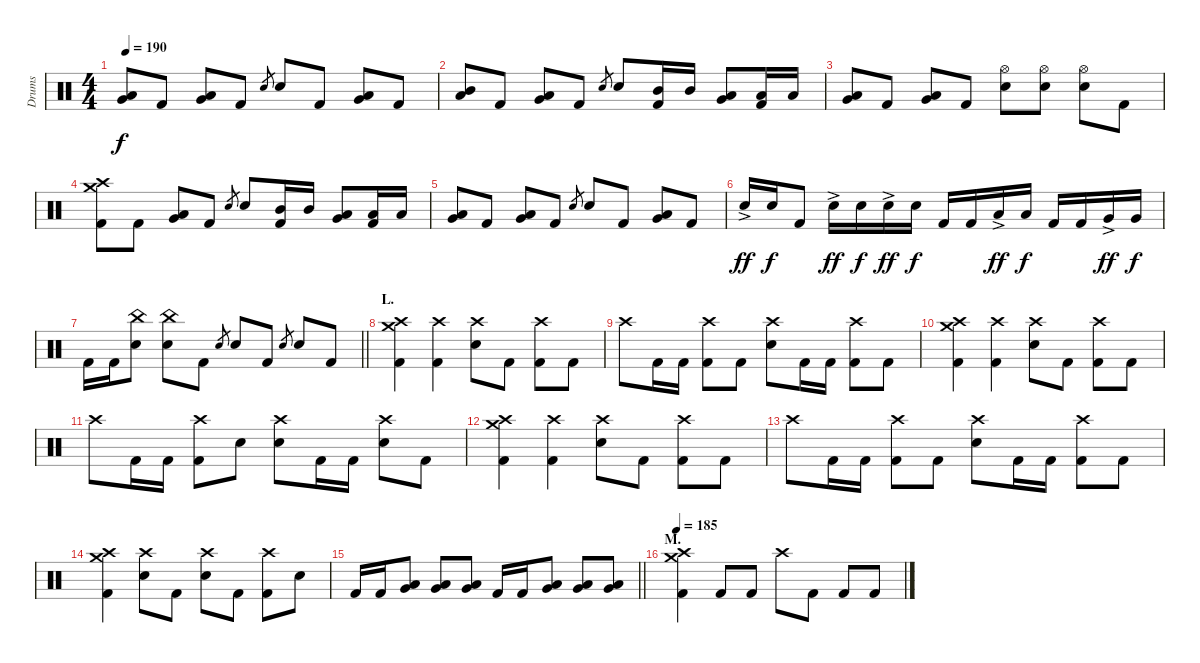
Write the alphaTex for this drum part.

\track ("Drums" "Drums") {instrument percussion}
\staff {score}
\articulation defaults
\ts (4 4)
\tempo 190
\clef neutral
\ks c
("Very Low Tom (hit)" "Low Floor Tom (hit)").8{bu 120 dy f} "Kick (hit) 2".8 ("Low Tom (hit)" "Very Low Tom (hit)").8{bu 120} "Kick (hit) 2".8 "Electric Snare (hit)".8{gr} "Electric Snare (hit)".8 "Kick (hit) 2".8 ("Low Tom (hit)" "Very Low Tom (hit)").8{bu 120} "Kick (hit) 2".8 |
("Mid Tom (hit)" "Low Tom (hit)").8{bu 120} "Kick (hit) 2".8 ("Low Tom (hit)" "Very Low Tom (hit)").8{bu 120} "Kick (hit) 2".8 "Electric Snare (hit)".8{gr} "Electric Snare (hit)".8 ("Mid Tom (hit)" "Kick (hit) 2").16 "Mid Tom (hit)".16 ("Very Low Tom (hit)" "Low Floor Tom (hit)").8{bu 120} ("Low Tom (hit)" "Kick (hit) 2").16 "Low Tom (hit)".16 |
("Very Low Tom (hit)" "Low Floor Tom (hit)").8{bu 120} "Kick (hit) 2".8 ("Low Tom (hit)" "Very Low Tom (hit)").8{bu 120} "Kick (hit) 2".8 ("Hi-Hat (open)" "Electric Snare (hit)").8 ("Hi-Hat (open)" "Electric Snare (hit)").8 ("Hi-Hat (open)" "Electric Snare (hit)").8 "Kick (hit) 2".8 |
("Crash medium (hit)" "Crash high (hit)" "Kick (hit) 2").8 "Kick (hit) 2".8 ("Low Tom (hit)" "Very Low Tom (hit)").8{bu 120} "Kick (hit) 2".8 "Electric Snare (hit)".8{gr} "Electric Snare (hit)".8 ("Mid Tom (hit)" "Kick (hit) 2").16 "Mid Tom (hit)".16 ("Very Low Tom (hit)" "Low Floor Tom (hit)").8{bu 120} ("Low Tom (hit)" "Kick (hit) 2").16 "Low Tom (hit)".16 |
("Very Low Tom (hit)" "Low Floor Tom (hit)").8{bu 120} "Kick (hit) 2".8 ("Low Tom (hit)" "Very Low Tom (hit)").8{bu 120} "Kick (hit) 2".8 "Electric Snare (hit)".8{gr} "Electric Snare (hit)".8 "Kick (hit) 2".8 ("Low Tom (hit)" "Very Low Tom (hit)").8{bu 120} "Kick (hit) 2".8 |
"Electric Snare (hit)"{ac}.16{dy ff} "Electric Snare (hit)".16{dy f} "Kick (hit) 2".8 "Electric Snare (hit)"{ac}.16{dy ff} "Electric Snare (hit)".16{dy f} "Electric Snare (hit)"{ac}.16{dy ff} "Electric Snare (hit)".16{dy f} "Kick (hit) 2".16 "Kick (hit) 2".16 "Low Tom (hit)"{ac}.16{dy ff} "Low Tom (hit)".16{dy f} "Kick (hit) 2".16 "Kick (hit) 2".16 "Very Low Tom (hit)"{ac}.16{dy ff} "Very Low Tom (hit)".16{dy f} |
\barLineRight lightlight "Kick (hit) 2".16 "Kick (hit) 2".16
("China (hit)" "Electric Snare (hit)").8 ("China (hit)" "Electric Snare (hit)").8 "Kick (hit) 2".8 "Electric Snare (hit)".8{gr} "Electric Snare (hit)".8 "Kick (hit) 2".8 "Electric Snare (hit)".8{gr} "Electric Snare (hit)".8 "Kick (hit) 2".8 |
\section ("" "L.")
("Crash medium (hit)" "Crash high (hit)" "Kick (hit) 2").4 ("Crash high (hit)" "Kick (hit) 2").4 ("Crash high (hit)" "Electric Snare (hit)").8 "Kick (hit) 2".8 ("Crash high (hit)" "Kick (hit) 2").8 "Kick (hit) 2".8 |
"Crash high (hit)".8 "Kick (hit) 2".16 "Kick (hit) 2".16 ("Crash high (hit)" "Kick (hit) 2").8 "Kick (hit) 2".8 ("Crash high (hit)" "Electric Snare (hit)").8 "Kick (hit) 2".16 "Kick (hit) 2".16 ("Crash high (hit)" "Kick (hit) 2").8 "Kick (hit) 2".8 |
("Crash medium (hit)" "Crash high (hit)" "Kick (hit) 2").4 ("Crash high (hit)" "Kick (hit) 2").4 ("Crash high (hit)" "Electric Snare (hit)").8 "Kick (hit) 2".8 ("Crash high (hit)" "Kick (hit) 2").8 "Kick (hit) 2".8 |
"Crash high (hit)".8 "Kick (hit) 2".16 "Kick (hit) 2".16 ("Crash high (hit)" "Kick (hit) 2").8 "Electric Snare (hit)".8 ("Crash high (hit)" "Electric Snare (hit)").8 "Kick (hit) 2".16 "Kick (hit) 2".16 ("Crash high (hit)" "Electric Snare (hit)").8 "Kick (hit) 2".8 |
("Crash medium (hit)" "Crash high (hit)" "Kick (hit) 2").4 ("Crash high (hit)" "Kick (hit) 2").4 ("Crash high (hit)" "Electric Snare (hit)").8 "Kick (hit) 2".8 ("Crash high (hit)" "Kick (hit) 2").8 "Kick (hit) 2".8 |
"Crash high (hit)".8 "Kick (hit) 2".16 "Kick (hit) 2".16 ("Crash high (hit)" "Kick (hit) 2").8 "Kick (hit) 2".8 ("Crash high (hit)" "Electric Snare (hit)").8 "Kick (hit) 2".16 "Kick (hit) 2".16 ("Crash high (hit)" "Kick (hit) 2").8 "Kick (hit) 2".8 |
("Crash medium (hit)" "Crash high (hit)" "Kick (hit) 2").4 ("Crash high (hit)" "Electric Snare (hit)").8 "Kick (hit) 2".8 ("Crash high (hit)" "Electric Snare (hit)").8 "Kick (hit) 2".8 ("Crash high (hit)" "Kick (hit) 2").8 "Electric Snare (hit)".8 |
\barLineRight lightlight "Kick (hit) 2".16 "Kick (hit) 2".16
("Very Low Tom (hit)" "Low Floor Tom (hit)").8 ("Very Low Tom (hit)" "Low Floor Tom (hit)").8 ("Very Low Tom (hit)" "Low Floor Tom (hit)").8 "Kick (hit) 2".16 "Kick (hit) 2".16 ("Very Low Tom (hit)" "Low Floor Tom (hit)").8 ("Very Low Tom (hit)" "Low Floor Tom (hit)").8 ("Very Low Tom (hit)" "Low Floor Tom (hit)").8 |
\section ("" "M.")
\tempo 185
("Crash medium (hit)" "Crash high (hit)" "Kick (hit) 2").4 "Kick (hit) 2".8 "Kick (hit) 2".8 "Crash high (hit)".8 "Kick (hit) 2".8 "Kick (hit) 2".8 "Kick (hit) 2".8
